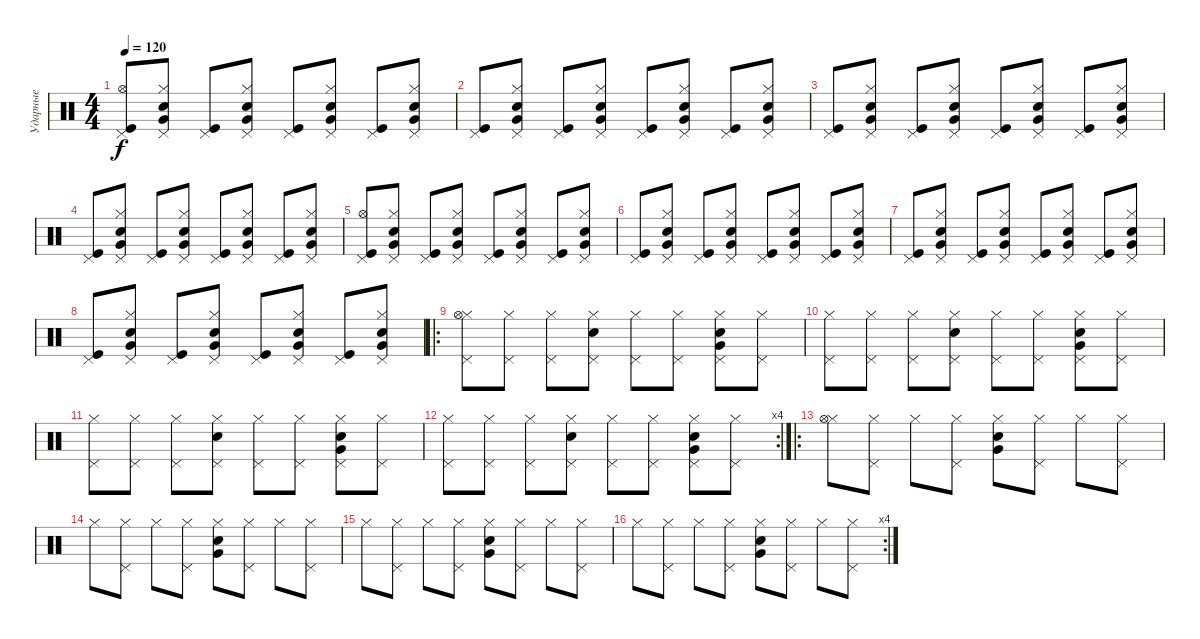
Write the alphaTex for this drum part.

\track ("Ударные" "Ударные") {instrument percussion}
\staff {score}
\articulation defaults
\ts (4 4)
\tempo 120
\clef neutral
\ks c
("Pedal Hi-Hat (hit)" "Hi-Hat (open)" "Kick (hit)").8{dy f} ("Pedal Hi-Hat (hit)" "Hi-Hat (closed)" "Electric Snare (hit)" "Very Low Tom (hit)").8 ("Pedal Hi-Hat (hit)" "Kick (hit)").8 ("Pedal Hi-Hat (hit)" "Hi-Hat (closed)" "Electric Snare (hit)" "Very Low Tom (hit)").8 ("Pedal Hi-Hat (hit)" "Kick (hit)").8 ("Pedal Hi-Hat (hit)" "Hi-Hat (closed)" "Electric Snare (hit)" "Very Low Tom (hit)").8 ("Pedal Hi-Hat (hit)" "Kick (hit)").8 ("Pedal Hi-Hat (hit)" "Hi-Hat (closed)" "Electric Snare (hit)" "Very Low Tom (hit)").8 |
("Pedal Hi-Hat (hit)" "Kick (hit)").8 ("Pedal Hi-Hat (hit)" "Hi-Hat (closed)" "Electric Snare (hit)" "Very Low Tom (hit)").8 ("Pedal Hi-Hat (hit)" "Kick (hit)").8 ("Pedal Hi-Hat (hit)" "Hi-Hat (closed)" "Electric Snare (hit)" "Very Low Tom (hit)").8 ("Pedal Hi-Hat (hit)" "Kick (hit)").8 ("Pedal Hi-Hat (hit)" "Hi-Hat (closed)" "Electric Snare (hit)" "Very Low Tom (hit)").8 ("Pedal Hi-Hat (hit)" "Kick (hit)").8 ("Pedal Hi-Hat (hit)" "Hi-Hat (closed)" "Electric Snare (hit)" "Very Low Tom (hit)").8 |
("Pedal Hi-Hat (hit)" "Kick (hit)").8 ("Pedal Hi-Hat (hit)" "Hi-Hat (closed)" "Electric Snare (hit)" "Very Low Tom (hit)").8 ("Pedal Hi-Hat (hit)" "Kick (hit)").8 ("Pedal Hi-Hat (hit)" "Hi-Hat (closed)" "Electric Snare (hit)" "Very Low Tom (hit)").8 ("Pedal Hi-Hat (hit)" "Kick (hit)").8 ("Pedal Hi-Hat (hit)" "Hi-Hat (closed)" "Electric Snare (hit)" "Very Low Tom (hit)").8 ("Pedal Hi-Hat (hit)" "Kick (hit)").8 ("Pedal Hi-Hat (hit)" "Hi-Hat (closed)" "Electric Snare (hit)" "Very Low Tom (hit)").8 |
("Pedal Hi-Hat (hit)" "Kick (hit)").8 ("Pedal Hi-Hat (hit)" "Hi-Hat (closed)" "Electric Snare (hit)" "Very Low Tom (hit)").8 ("Pedal Hi-Hat (hit)" "Kick (hit)").8 ("Pedal Hi-Hat (hit)" "Hi-Hat (closed)" "Electric Snare (hit)" "Very Low Tom (hit)").8 ("Pedal Hi-Hat (hit)" "Kick (hit)").8 ("Pedal Hi-Hat (hit)" "Hi-Hat (closed)" "Electric Snare (hit)" "Very Low Tom (hit)").8 ("Pedal Hi-Hat (hit)" "Kick (hit)").8 ("Pedal Hi-Hat (hit)" "Hi-Hat (closed)" "Electric Snare (hit)" "Very Low Tom (hit)").8 |
("Pedal Hi-Hat (hit)" "Hi-Hat (open)" "Kick (hit)").8 ("Pedal Hi-Hat (hit)" "Hi-Hat (closed)" "Electric Snare (hit)" "Very Low Tom (hit)").8 ("Pedal Hi-Hat (hit)" "Kick (hit)").8 ("Pedal Hi-Hat (hit)" "Hi-Hat (closed)" "Electric Snare (hit)" "Very Low Tom (hit)").8 ("Pedal Hi-Hat (hit)" "Kick (hit)").8 ("Pedal Hi-Hat (hit)" "Hi-Hat (closed)" "Electric Snare (hit)" "Very Low Tom (hit)").8 ("Pedal Hi-Hat (hit)" "Kick (hit)").8 ("Pedal Hi-Hat (hit)" "Hi-Hat (closed)" "Electric Snare (hit)" "Very Low Tom (hit)").8 |
("Pedal Hi-Hat (hit)" "Kick (hit)").8 ("Pedal Hi-Hat (hit)" "Hi-Hat (closed)" "Electric Snare (hit)" "Very Low Tom (hit)").8 ("Pedal Hi-Hat (hit)" "Kick (hit)").8 ("Pedal Hi-Hat (hit)" "Hi-Hat (closed)" "Electric Snare (hit)" "Very Low Tom (hit)").8 ("Pedal Hi-Hat (hit)" "Kick (hit)").8 ("Pedal Hi-Hat (hit)" "Hi-Hat (closed)" "Electric Snare (hit)" "Very Low Tom (hit)").8 ("Pedal Hi-Hat (hit)" "Kick (hit)").8 ("Pedal Hi-Hat (hit)" "Hi-Hat (closed)" "Electric Snare (hit)" "Very Low Tom (hit)").8 |
("Pedal Hi-Hat (hit)" "Kick (hit)").8 ("Pedal Hi-Hat (hit)" "Hi-Hat (closed)" "Electric Snare (hit)" "Very Low Tom (hit)").8 ("Pedal Hi-Hat (hit)" "Kick (hit)").8 ("Pedal Hi-Hat (hit)" "Hi-Hat (closed)" "Electric Snare (hit)" "Very Low Tom (hit)").8 ("Pedal Hi-Hat (hit)" "Kick (hit)").8 ("Pedal Hi-Hat (hit)" "Hi-Hat (closed)" "Electric Snare (hit)" "Very Low Tom (hit)").8 ("Pedal Hi-Hat (hit)" "Kick (hit)").8 ("Pedal Hi-Hat (hit)" "Hi-Hat (closed)" "Electric Snare (hit)" "Very Low Tom (hit)").8 |
("Pedal Hi-Hat (hit)" "Kick (hit)").8 ("Pedal Hi-Hat (hit)" "Hi-Hat (closed)" "Electric Snare (hit)" "Very Low Tom (hit)").8 ("Pedal Hi-Hat (hit)" "Kick (hit)").8 ("Pedal Hi-Hat (hit)" "Hi-Hat (closed)" "Electric Snare (hit)" "Very Low Tom (hit)").8 ("Pedal Hi-Hat (hit)" "Kick (hit)").8 ("Pedal Hi-Hat (hit)" "Hi-Hat (closed)" "Electric Snare (hit)" "Very Low Tom (hit)").8 ("Pedal Hi-Hat (hit)" "Kick (hit)").8 ("Pedal Hi-Hat (hit)" "Hi-Hat (closed)" "Electric Snare (hit)" "Very Low Tom (hit)").8 |
\ro
("Hi-Hat (closed)" "Pedal Hi-Hat (hit)" "Hi-Hat (open)").8 ("Hi-Hat (closed)" "Pedal Hi-Hat (hit)").8 ("Hi-Hat (closed)" "Pedal Hi-Hat (hit)").8 ("Hi-Hat (closed)" "Pedal Hi-Hat (hit)" "Electric Snare (hit)").8 ("Hi-Hat (closed)" "Pedal Hi-Hat (hit)").8 ("Hi-Hat (closed)" "Pedal Hi-Hat (hit)").8 ("Hi-Hat (closed)" "Pedal Hi-Hat (hit)" "Electric Snare (hit)" "Very Low Tom (hit)").8 ("Hi-Hat (closed)" "Pedal Hi-Hat (hit)").8 |
("Hi-Hat (closed)" "Pedal Hi-Hat (hit)").8 ("Hi-Hat (closed)" "Pedal Hi-Hat (hit)").8 ("Hi-Hat (closed)" "Pedal Hi-Hat (hit)").8 ("Hi-Hat (closed)" "Pedal Hi-Hat (hit)" "Electric Snare (hit)").8 ("Hi-Hat (closed)" "Pedal Hi-Hat (hit)").8 ("Hi-Hat (closed)" "Pedal Hi-Hat (hit)").8 ("Hi-Hat (closed)" "Pedal Hi-Hat (hit)" "Electric Snare (hit)" "Very Low Tom (hit)").8 ("Hi-Hat (closed)" "Pedal Hi-Hat (hit)").8 |
("Hi-Hat (closed)" "Pedal Hi-Hat (hit)").8 ("Hi-Hat (closed)" "Pedal Hi-Hat (hit)").8 ("Hi-Hat (closed)" "Pedal Hi-Hat (hit)").8 ("Hi-Hat (closed)" "Pedal Hi-Hat (hit)" "Electric Snare (hit)").8 ("Hi-Hat (closed)" "Pedal Hi-Hat (hit)").8 ("Hi-Hat (closed)" "Pedal Hi-Hat (hit)").8 ("Hi-Hat (closed)" "Pedal Hi-Hat (hit)" "Electric Snare (hit)" "Very Low Tom (hit)").8 ("Hi-Hat (closed)" "Pedal Hi-Hat (hit)").8 |
\rc 4
("Hi-Hat (closed)" "Pedal Hi-Hat (hit)").8 ("Hi-Hat (closed)" "Pedal Hi-Hat (hit)").8 ("Hi-Hat (closed)" "Pedal Hi-Hat (hit)").8 ("Hi-Hat (closed)" "Pedal Hi-Hat (hit)" "Electric Snare (hit)").8 ("Hi-Hat (closed)" "Pedal Hi-Hat (hit)").8 ("Hi-Hat (closed)" "Pedal Hi-Hat (hit)").8 ("Hi-Hat (closed)" "Pedal Hi-Hat (hit)" "Electric Snare (hit)" "Very Low Tom (hit)").8 ("Hi-Hat (closed)" "Pedal Hi-Hat (hit)").8 |
\ro
("Hi-Hat (closed)" "Hi-Hat (open)").8 ("Hi-Hat (closed)" "Pedal Hi-Hat (hit)").8 "Hi-Hat (closed)".8 ("Hi-Hat (closed)" "Pedal Hi-Hat (hit)").8 ("Hi-Hat (closed)" "Electric Snare (hit)" "Very Low Tom (hit)").8 ("Hi-Hat (closed)" "Pedal Hi-Hat (hit)").8 "Hi-Hat (closed)".8 ("Hi-Hat (closed)" "Pedal Hi-Hat (hit)").8 |
"Hi-Hat (closed)".8 ("Hi-Hat (closed)" "Pedal Hi-Hat (hit)").8 "Hi-Hat (closed)".8 ("Hi-Hat (closed)" "Pedal Hi-Hat (hit)").8 ("Hi-Hat (closed)" "Electric Snare (hit)" "Very Low Tom (hit)").8 ("Hi-Hat (closed)" "Pedal Hi-Hat (hit)").8 "Hi-Hat (closed)".8 ("Hi-Hat (closed)" "Pedal Hi-Hat (hit)").8 |
"Hi-Hat (closed)".8 ("Hi-Hat (closed)" "Pedal Hi-Hat (hit)").8 "Hi-Hat (closed)".8 ("Hi-Hat (closed)" "Pedal Hi-Hat (hit)").8 ("Hi-Hat (closed)" "Electric Snare (hit)" "Very Low Tom (hit)").8 ("Hi-Hat (closed)" "Pedal Hi-Hat (hit)").8 "Hi-Hat (closed)".8 ("Hi-Hat (closed)" "Pedal Hi-Hat (hit)").8 |
\rc 4 "Hi-Hat (closed)".8
("Hi-Hat (closed)" "Pedal Hi-Hat (hit)").8 "Hi-Hat (closed)".8 ("Hi-Hat (closed)" "Pedal Hi-Hat (hit)").8 ("Hi-Hat (closed)" "Electric Snare (hit)" "Very Low Tom (hit)").8 ("Hi-Hat (closed)" "Pedal Hi-Hat (hit)").8 "Hi-Hat (closed)".8 ("Hi-Hat (closed)" "Pedal Hi-Hat (hit)").8
